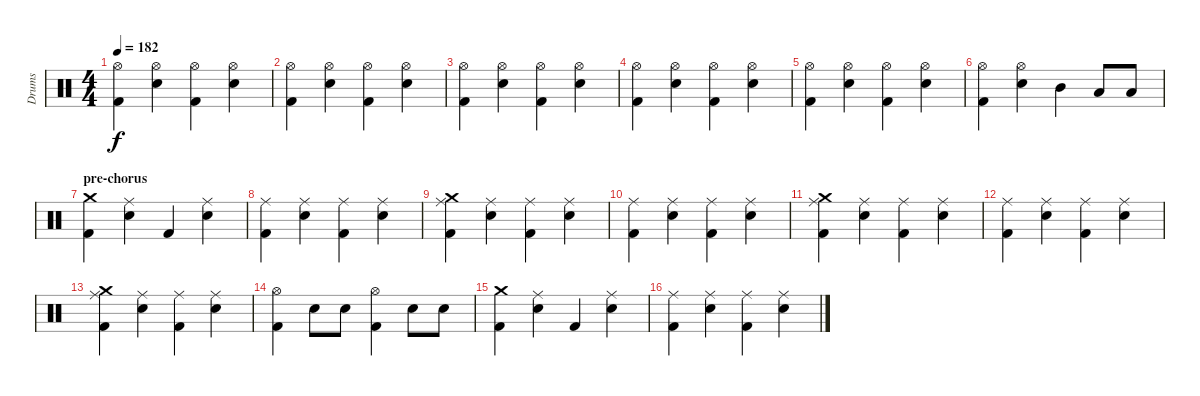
\track ("Drums" "Drums") {instrument percussion}
\staff {score}
\articulation defaults
\ts (4 4)
\tempo 182
\clef neutral
\ks c
("Kick (hit) 2" "Hi-Hat (open)").4{dy f} ("Snare (hit) 2" "Hi-Hat (open)").4 ("Kick (hit) 2" "Hi-Hat (open)").4 ("Snare (hit) 2" "Hi-Hat (open)").4 |
("Kick (hit) 2" "Hi-Hat (open)").4 ("Snare (hit) 2" "Hi-Hat (open)").4 ("Kick (hit) 2" "Hi-Hat (open)").4 ("Snare (hit) 2" "Hi-Hat (open)").4 |
("Kick (hit) 2" "Hi-Hat (open)").4 ("Snare (hit) 2" "Hi-Hat (open)").4 ("Kick (hit) 2" "Hi-Hat (open)").4 ("Snare (hit) 2" "Hi-Hat (open)").4 |
("Kick (hit) 2" "Hi-Hat (open)").4 ("Snare (hit) 2" "Hi-Hat (open)").4 ("Kick (hit) 2" "Hi-Hat (open)").4 ("Snare (hit) 2" "Hi-Hat (open)").4 |
("Kick (hit) 2" "Hi-Hat (open)").4 ("Snare (hit) 2" "Hi-Hat (open)").4 ("Kick (hit) 2" "Hi-Hat (open)").4 ("Snare (hit) 2" "Hi-Hat (open)").4 |
("Kick (hit) 2" "Hi-Hat (open)").4 ("Snare (hit) 2" "Hi-Hat (open)").4 "Mid Tom (hit)".4 "Low Floor Tom (hit)".8 "Low Floor Tom (hit)".8 |
\section ("" "pre-chorus")
("Kick (hit) 2" "Crash medium (hit)").4 ("Snare (hit) 2" "Ride (middle)").4 "Kick (hit) 2".4 ("Snare (hit) 2" "Ride (middle)").4 |
("Kick (hit) 2" "Ride (middle)").4 ("Snare (hit) 2" "Ride (middle)").4 ("Kick (hit) 2" "Ride (middle)").4 ("Snare (hit) 2" "Ride (middle)").4 |
("Kick (hit) 2" "Ride (middle)" "Crash medium (hit)").4 ("Snare (hit) 2" "Ride (middle)").4 ("Kick (hit) 2" "Ride (middle)").4 ("Snare (hit) 2" "Ride (middle)").4 |
("Kick (hit) 2" "Ride (middle)").4 ("Snare (hit) 2" "Ride (middle)").4 ("Kick (hit) 2" "Ride (middle)").4 ("Snare (hit) 2" "Ride (middle)").4 |
("Kick (hit) 2" "Ride (middle)" "Crash medium (hit)").4 ("Snare (hit) 2" "Ride (middle)").4 ("Kick (hit) 2" "Ride (middle)").4 ("Snare (hit) 2" "Ride (middle)").4 |
("Kick (hit) 2" "Ride (middle)").4 ("Snare (hit) 2" "Ride (middle)").4 ("Kick (hit) 2" "Ride (middle)").4 ("Snare (hit) 2" "Ride (middle)").4 |
("Kick (hit) 2" "Ride (middle)" "Crash medium (hit)").4 ("Snare (hit) 2" "Ride (middle)").4 ("Kick (hit) 2" "Ride (middle)").4 ("Snare (hit) 2" "Ride (middle)").4 |
("Kick (hit) 2" "Hi-Hat (open)").4 "Snare (hit) 2".8 "Snare (hit) 2".8 ("Kick (hit) 2" "Hi-Hat (open)").4 "Snare (hit) 2".8 "Snare (hit) 2".8 |
("Kick (hit) 2" "Crash medium (hit)").4 ("Snare (hit) 2" "Ride (middle)").4 "Kick (hit) 2".4 ("Snare (hit) 2" "Ride (middle)").4 |
("Kick (hit) 2" "Ride (middle)").4 ("Snare (hit) 2" "Ride (middle)").4 ("Kick (hit) 2" "Ride (middle)").4 ("Snare (hit) 2" "Ride (middle)").4
